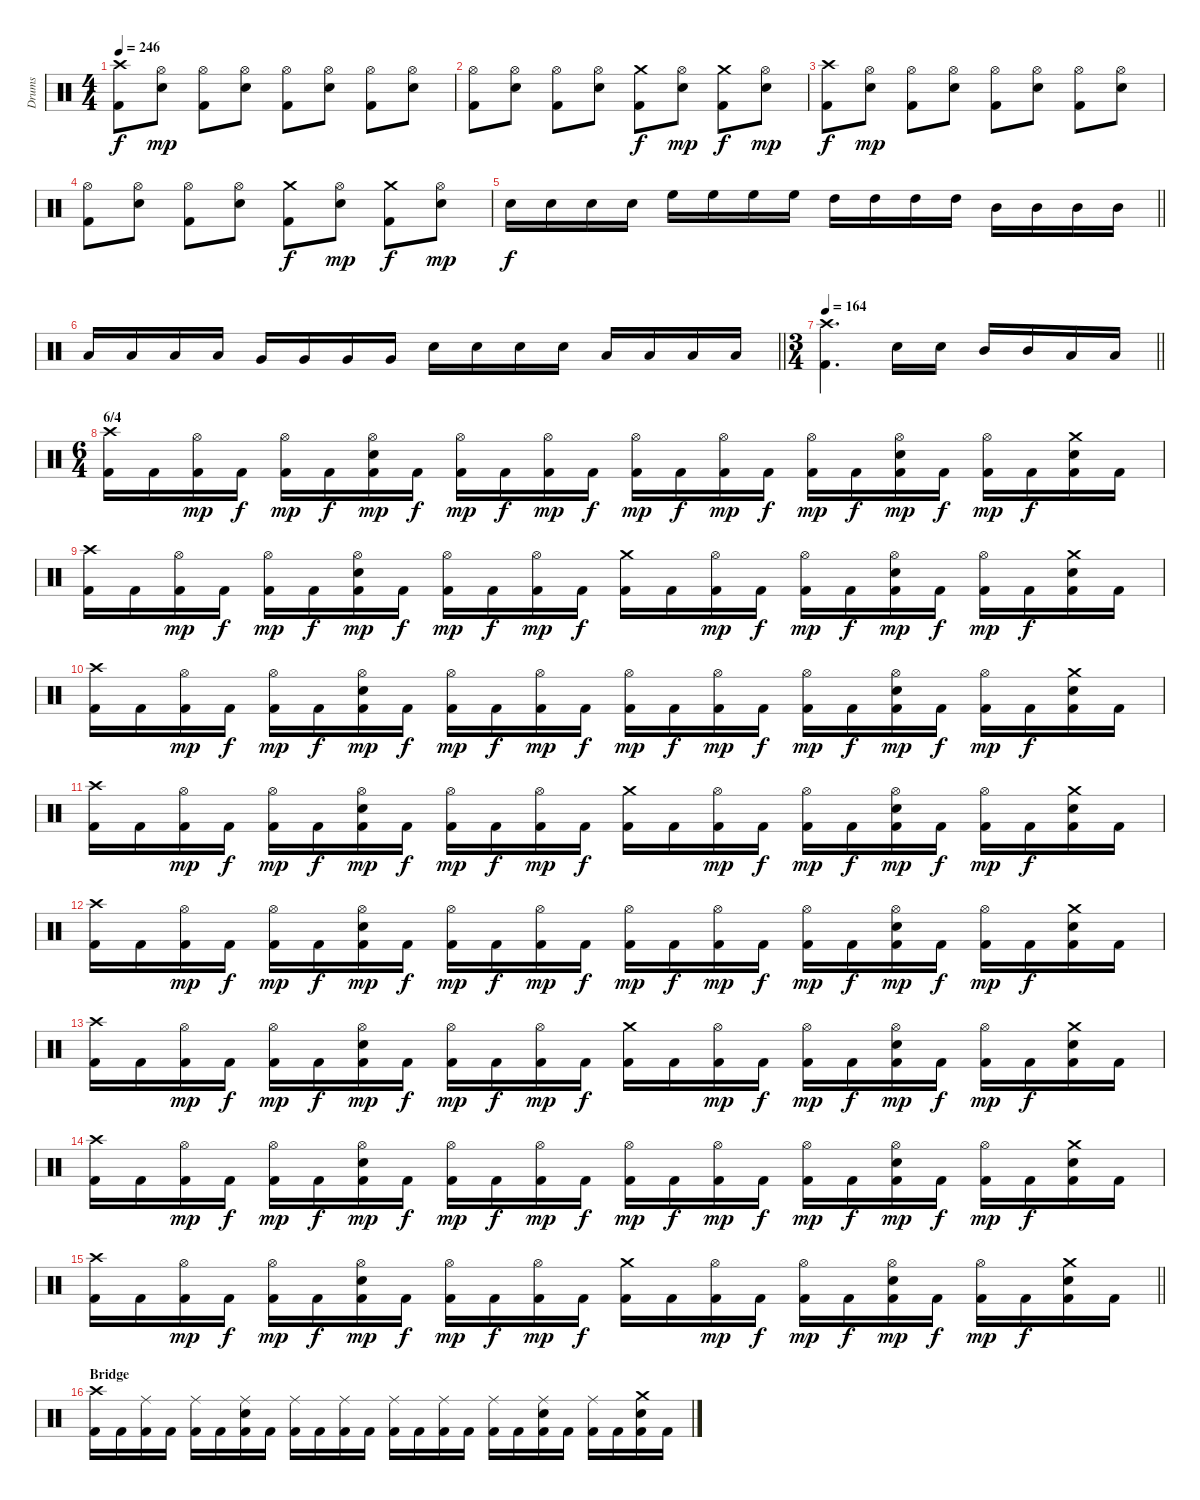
\track ("Drums" "Drums") {instrument percussion}
\staff {score}
\articulation defaults
\ts (4 4)
\section ("" "")
\tempo 246
\clef neutral
\ks c
("Crash high (hit)" "Kick (hit) 2").8{dy f} ("Hi-Hat (open)" "Snare (hit) 2").8{dy mp} ("Hi-Hat (open)" "Kick (hit) 2").8 ("Hi-Hat (open)" "Snare (hit) 2").8 ("Hi-Hat (open)" "Kick (hit) 2").8 ("Hi-Hat (open)" "Snare (hit) 2").8 ("Hi-Hat (open)" "Kick (hit) 2").8 ("Hi-Hat (open)" "Snare (hit) 2").8 |
("Hi-Hat (open)" "Kick (hit) 2").8 ("Hi-Hat (open)" "Snare (hit) 2").8 ("Hi-Hat (open)" "Kick (hit) 2").8 ("Hi-Hat (open)" "Snare (hit) 2").8 ("Crash medium (hit)" "Kick (hit) 2").8{dy f} ("Hi-Hat (open)" "Snare (hit) 2").8{dy mp} ("Crash medium (hit)" "Kick (hit) 2").8{dy f} ("Hi-Hat (open)" "Snare (hit) 2").8{dy mp} |
("Crash high (hit)" "Kick (hit) 2").8{dy f} ("Hi-Hat (open)" "Snare (hit) 2").8{dy mp} ("Hi-Hat (open)" "Kick (hit) 2").8 ("Hi-Hat (open)" "Snare (hit) 2").8 ("Hi-Hat (open)" "Kick (hit) 2").8 ("Hi-Hat (open)" "Snare (hit) 2").8 ("Hi-Hat (open)" "Kick (hit) 2").8 ("Hi-Hat (open)" "Snare (hit) 2").8 |
("Hi-Hat (open)" "Kick (hit) 2").8 ("Hi-Hat (open)" "Snare (hit) 2").8 ("Hi-Hat (open)" "Kick (hit) 2").8 ("Hi-Hat (open)" "Snare (hit) 2").8 ("Crash medium (hit)" "Kick (hit) 2").8{dy f} ("Hi-Hat (open)" "Snare (hit) 2").8{dy mp} ("Crash medium (hit)" "Kick (hit) 2").8{dy f} ("Hi-Hat (open)" "Snare (hit) 2").8{dy mp} |
\barLineRight lightlight "Snare (hit) 2".16{dy f} "Snare (hit) 2".16 "Snare (hit) 2".16 "Snare (hit) 2".16 "High Floor Tom (hit)".16 "High Floor Tom (hit)".16 "High Floor Tom (hit)".16 "High Floor Tom (hit)".16 "High Tom (hit)".16 "High Tom (hit)".16 "High Tom (hit)".16 "High Tom (hit)".16 "Mid Tom (hit)".16 "Mid Tom (hit)".16 "Mid Tom (hit)".16 "Mid Tom (hit)".16
|
\barLineRight lightlight "Low Tom (hit)".16 "Low Tom (hit)".16 "Low Tom (hit)".16 "Low Tom (hit)".16 "Very Low Tom (hit)".16 "Very Low Tom (hit)".16 "Very Low Tom (hit)".16 "Very Low Tom (hit)".16 "Snare (hit) 2".16 "Snare (hit) 2".16 "Snare (hit) 2".16 "Snare (hit) 2".16 "Low Floor Tom (hit)".16 "Low Floor Tom (hit)".16 "Low Floor Tom (hit)".16 "Low Floor Tom (hit)".16
|
\ts (3 4)
\section ("" "")
\tempo 164
\barLineRight lightlight
("Crash high (hit)" "Kick (hit) 2").4{d} "Snare (hit) 2".16 "Snare (hit) 2".16 "Mid Tom (hit)".16 "Mid Tom (hit)".16 "Low Tom (hit)".16 "Low Tom (hit)".16 |
\ts (6 4)
\section ("" "6/4")
("Crash high (hit)" "Kick (hit) 2").16 "Kick (hit) 2".16 ("Hi-Hat (open)" "Kick (hit) 2").16{dy mp} "Kick (hit) 2".16{dy f} ("Hi-Hat (open)" "Kick (hit) 2").16{dy mp} "Kick (hit) 2".16{dy f} ("Hi-Hat (open)" "Snare (hit) 2" "Kick (hit) 2").16{dy mp} "Kick (hit) 2".16{dy f} ("Hi-Hat (open)" "Kick (hit) 2").16{dy mp} "Kick (hit) 2".16{dy f} ("Hi-Hat (open)" "Kick (hit) 2").16{dy mp} "Kick (hit) 2".16{dy f} ("Hi-Hat (open)" "Kick (hit) 2").16{dy mp} "Kick (hit) 2".16{dy f} ("Hi-Hat (open)" "Kick (hit) 2").16{dy mp} "Kick (hit) 2".16{dy f} ("Hi-Hat (open)" "Kick (hit) 2").16{dy mp} "Kick (hit) 2".16{dy f} ("Hi-Hat (open)" "Snare (hit) 2" "Kick (hit) 2").16{dy mp} "Kick (hit) 2".16{dy f} ("Hi-Hat (open)" "Kick (hit) 2").16{dy mp} "Kick (hit) 2".16{dy f} ("Crash medium (hit)" "Snare (hit) 2" "Kick (hit) 2").16 "Kick (hit) 2".16 |
("Crash high (hit)" "Kick (hit) 2").16 "Kick (hit) 2".16 ("Hi-Hat (open)" "Kick (hit) 2").16{dy mp} "Kick (hit) 2".16{dy f} ("Hi-Hat (open)" "Kick (hit) 2").16{dy mp} "Kick (hit) 2".16{dy f} ("Hi-Hat (open)" "Snare (hit) 2" "Kick (hit) 2").16{dy mp} "Kick (hit) 2".16{dy f} ("Hi-Hat (open)" "Kick (hit) 2").16{dy mp} "Kick (hit) 2".16{dy f} ("Hi-Hat (open)" "Kick (hit) 2").16{dy mp} "Kick (hit) 2".16{dy f} ("Crash medium (hit)" "Kick (hit) 2").16 "Kick (hit) 2".16 ("Hi-Hat (open)" "Kick (hit) 2").16{dy mp} "Kick (hit) 2".16{dy f} ("Hi-Hat (open)" "Kick (hit) 2").16{dy mp} "Kick (hit) 2".16{dy f} ("Hi-Hat (open)" "Snare (hit) 2" "Kick (hit) 2").16{dy mp} "Kick (hit) 2".16{dy f} ("Hi-Hat (open)" "Kick (hit) 2").16{dy mp} "Kick (hit) 2".16{dy f} ("Crash medium (hit)" "Snare (hit) 2" "Kick (hit) 2").16 "Kick (hit) 2".16 |
("Crash high (hit)" "Kick (hit) 2").16 "Kick (hit) 2".16 ("Hi-Hat (open)" "Kick (hit) 2").16{dy mp} "Kick (hit) 2".16{dy f} ("Hi-Hat (open)" "Kick (hit) 2").16{dy mp} "Kick (hit) 2".16{dy f} ("Hi-Hat (open)" "Snare (hit) 2" "Kick (hit) 2").16{dy mp} "Kick (hit) 2".16{dy f} ("Hi-Hat (open)" "Kick (hit) 2").16{dy mp} "Kick (hit) 2".16{dy f} ("Hi-Hat (open)" "Kick (hit) 2").16{dy mp} "Kick (hit) 2".16{dy f} ("Hi-Hat (open)" "Kick (hit) 2").16{dy mp} "Kick (hit) 2".16{dy f} ("Hi-Hat (open)" "Kick (hit) 2").16{dy mp} "Kick (hit) 2".16{dy f} ("Hi-Hat (open)" "Kick (hit) 2").16{dy mp} "Kick (hit) 2".16{dy f} ("Hi-Hat (open)" "Snare (hit) 2" "Kick (hit) 2").16{dy mp} "Kick (hit) 2".16{dy f} ("Hi-Hat (open)" "Kick (hit) 2").16{dy mp} "Kick (hit) 2".16{dy f} ("Crash medium (hit)" "Snare (hit) 2" "Kick (hit) 2").16 "Kick (hit) 2".16 |
("Crash high (hit)" "Kick (hit) 2").16 "Kick (hit) 2".16 ("Hi-Hat (open)" "Kick (hit) 2").16{dy mp} "Kick (hit) 2".16{dy f} ("Hi-Hat (open)" "Kick (hit) 2").16{dy mp} "Kick (hit) 2".16{dy f} ("Hi-Hat (open)" "Snare (hit) 2" "Kick (hit) 2").16{dy mp} "Kick (hit) 2".16{dy f} ("Hi-Hat (open)" "Kick (hit) 2").16{dy mp} "Kick (hit) 2".16{dy f} ("Hi-Hat (open)" "Kick (hit) 2").16{dy mp} "Kick (hit) 2".16{dy f} ("Crash medium (hit)" "Kick (hit) 2").16 "Kick (hit) 2".16 ("Hi-Hat (open)" "Kick (hit) 2").16{dy mp} "Kick (hit) 2".16{dy f} ("Hi-Hat (open)" "Kick (hit) 2").16{dy mp} "Kick (hit) 2".16{dy f} ("Hi-Hat (open)" "Snare (hit) 2" "Kick (hit) 2").16{dy mp} "Kick (hit) 2".16{dy f} ("Hi-Hat (open)" "Kick (hit) 2").16{dy mp} "Kick (hit) 2".16{dy f} ("Crash medium (hit)" "Snare (hit) 2" "Kick (hit) 2").16 "Kick (hit) 2".16 |
("Crash high (hit)" "Kick (hit) 2").16 "Kick (hit) 2".16 ("Hi-Hat (open)" "Kick (hit) 2").16{dy mp} "Kick (hit) 2".16{dy f} ("Hi-Hat (open)" "Kick (hit) 2").16{dy mp} "Kick (hit) 2".16{dy f} ("Hi-Hat (open)" "Snare (hit) 2" "Kick (hit) 2").16{dy mp} "Kick (hit) 2".16{dy f} ("Hi-Hat (open)" "Kick (hit) 2").16{dy mp} "Kick (hit) 2".16{dy f} ("Hi-Hat (open)" "Kick (hit) 2").16{dy mp} "Kick (hit) 2".16{dy f} ("Hi-Hat (open)" "Kick (hit) 2").16{dy mp} "Kick (hit) 2".16{dy f} ("Hi-Hat (open)" "Kick (hit) 2").16{dy mp} "Kick (hit) 2".16{dy f} ("Hi-Hat (open)" "Kick (hit) 2").16{dy mp} "Kick (hit) 2".16{dy f} ("Hi-Hat (open)" "Snare (hit) 2" "Kick (hit) 2").16{dy mp} "Kick (hit) 2".16{dy f} ("Hi-Hat (open)" "Kick (hit) 2").16{dy mp} "Kick (hit) 2".16{dy f} ("Crash medium (hit)" "Snare (hit) 2" "Kick (hit) 2").16 "Kick (hit) 2".16 |
("Crash high (hit)" "Kick (hit) 2").16 "Kick (hit) 2".16 ("Hi-Hat (open)" "Kick (hit) 2").16{dy mp} "Kick (hit) 2".16{dy f} ("Hi-Hat (open)" "Kick (hit) 2").16{dy mp} "Kick (hit) 2".16{dy f} ("Hi-Hat (open)" "Snare (hit) 2" "Kick (hit) 2").16{dy mp} "Kick (hit) 2".16{dy f} ("Hi-Hat (open)" "Kick (hit) 2").16{dy mp} "Kick (hit) 2".16{dy f} ("Hi-Hat (open)" "Kick (hit) 2").16{dy mp} "Kick (hit) 2".16{dy f} ("Crash medium (hit)" "Kick (hit) 2").16 "Kick (hit) 2".16 ("Hi-Hat (open)" "Kick (hit) 2").16{dy mp} "Kick (hit) 2".16{dy f} ("Hi-Hat (open)" "Kick (hit) 2").16{dy mp} "Kick (hit) 2".16{dy f} ("Hi-Hat (open)" "Snare (hit) 2" "Kick (hit) 2").16{dy mp} "Kick (hit) 2".16{dy f} ("Hi-Hat (open)" "Kick (hit) 2").16{dy mp} "Kick (hit) 2".16{dy f} ("Crash medium (hit)" "Snare (hit) 2" "Kick (hit) 2").16 "Kick (hit) 2".16 |
("Crash high (hit)" "Kick (hit) 2").16 "Kick (hit) 2".16 ("Hi-Hat (open)" "Kick (hit) 2").16{dy mp} "Kick (hit) 2".16{dy f} ("Hi-Hat (open)" "Kick (hit) 2").16{dy mp} "Kick (hit) 2".16{dy f} ("Hi-Hat (open)" "Snare (hit) 2" "Kick (hit) 2").16{dy mp} "Kick (hit) 2".16{dy f} ("Hi-Hat (open)" "Kick (hit) 2").16{dy mp} "Kick (hit) 2".16{dy f} ("Hi-Hat (open)" "Kick (hit) 2").16{dy mp} "Kick (hit) 2".16{dy f} ("Hi-Hat (open)" "Kick (hit) 2").16{dy mp} "Kick (hit) 2".16{dy f} ("Hi-Hat (open)" "Kick (hit) 2").16{dy mp} "Kick (hit) 2".16{dy f} ("Hi-Hat (open)" "Kick (hit) 2").16{dy mp} "Kick (hit) 2".16{dy f} ("Hi-Hat (open)" "Snare (hit) 2" "Kick (hit) 2").16{dy mp} "Kick (hit) 2".16{dy f} ("Hi-Hat (open)" "Kick (hit) 2").16{dy mp} "Kick (hit) 2".16{dy f} ("Crash medium (hit)" "Snare (hit) 2" "Kick (hit) 2").16 "Kick (hit) 2".16 |
\barLineRight lightlight
("Crash high (hit)" "Kick (hit) 2").16 "Kick (hit) 2".16 ("Hi-Hat (open)" "Kick (hit) 2").16{dy mp} "Kick (hit) 2".16{dy f} ("Hi-Hat (open)" "Kick (hit) 2").16{dy mp} "Kick (hit) 2".16{dy f} ("Hi-Hat (open)" "Snare (hit) 2" "Kick (hit) 2").16{dy mp} "Kick (hit) 2".16{dy f} ("Hi-Hat (open)" "Kick (hit) 2").16{dy mp} "Kick (hit) 2".16{dy f} ("Hi-Hat (open)" "Kick (hit) 2").16{dy mp} "Kick (hit) 2".16{dy f} ("Crash medium (hit)" "Kick (hit) 2").16 "Kick (hit) 2".16 ("Hi-Hat (open)" "Kick (hit) 2").16{dy mp} "Kick (hit) 2".16{dy f} ("Hi-Hat (open)" "Kick (hit) 2").16{dy mp} "Kick (hit) 2".16{dy f} ("Hi-Hat (open)" "Snare (hit) 2" "Kick (hit) 2").16{dy mp} "Kick (hit) 2".16{dy f} ("Hi-Hat (open)" "Kick (hit) 2").16{dy mp} "Kick (hit) 2".16{dy f} ("Crash medium (hit)" "Snare (hit) 2" "Kick (hit) 2").16 "Kick (hit) 2".16 |
\section ("" "Bridge")
("Crash high (hit)" "Kick (hit) 2").16 "Kick (hit) 2".16 ("Ride (middle)" "Kick (hit) 2").16 "Kick (hit) 2".16 ("Ride (middle)" "Kick (hit) 2").16 "Kick (hit) 2".16 ("Ride (middle)" "Snare (hit) 2" "Kick (hit) 2").16 "Kick (hit) 2".16 ("Ride (middle)" "Kick (hit) 2").16 "Kick (hit) 2".16 ("Ride (middle)" "Kick (hit) 2").16 "Kick (hit) 2".16 ("Ride (middle)" "Kick (hit) 2").16 "Kick (hit) 2".16 ("Ride (middle)" "Kick (hit) 2").16 "Kick (hit) 2".16 ("Ride (middle)" "Kick (hit) 2").16 "Kick (hit) 2".16 ("Ride (middle)" "Snare (hit) 2" "Kick (hit) 2").16 "Kick (hit) 2".16 ("Ride (middle)" "Kick (hit) 2").16 "Kick (hit) 2".16 ("Crash medium (hit)" "Snare (hit) 2" "Kick (hit) 2").16 "Kick (hit) 2".16
